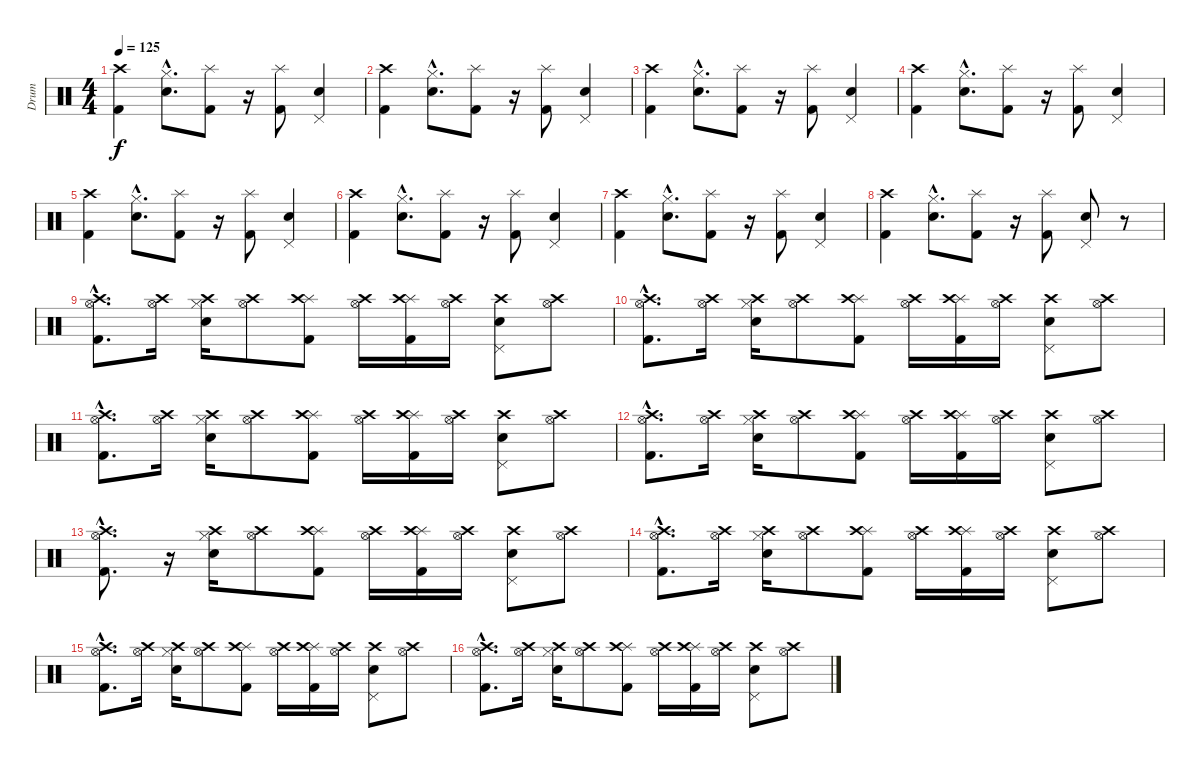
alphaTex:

\track ("Drum" "Drum") {instrument percussion}
\staff {score}
\articulation defaults
\ts (4 4)
\tempo 125
\clef neutral
\ks c
("Kick (hit) 2" "Crash high (hit)").4{dy f} ("Snare (hit) 2"{hac} "Hi-Hat (closed)"{hac}).8{d} ("Kick (hit) 2" "Splash (hit)").8 r.16 ("Kick (hit) 2" "Splash (hit)").8 ("Snare (hit) 2" "Pedal Hi-Hat (hit)").4 |
("Kick (hit) 2" "Crash high (hit)").4 ("Snare (hit) 2"{hac} "Hi-Hat (closed)"{hac}).8{d} ("Kick (hit) 2" "Splash (hit)").8 r.16 ("Kick (hit) 2" "Splash (hit)").8 ("Snare (hit) 2" "Pedal Hi-Hat (hit)").4 |
("Kick (hit) 2" "Crash high (hit)").4 ("Snare (hit) 2"{hac} "Hi-Hat (closed)"{hac}).8{d} ("Kick (hit) 2" "Splash (hit)").8 r.16 ("Kick (hit) 2" "Splash (hit)").8 ("Snare (hit) 2" "Pedal Hi-Hat (hit)").4 |
("Kick (hit) 2" "Crash high (hit)").4 ("Snare (hit) 2"{hac} "Hi-Hat (closed)"{hac}).8{d} ("Kick (hit) 2" "Splash (hit)").8 r.16 ("Kick (hit) 2" "Splash (hit)").8 ("Snare (hit) 2" "Pedal Hi-Hat (hit)").4 |
("Kick (hit) 2" "Crash high (hit)").4 ("Snare (hit) 2"{hac} "Hi-Hat (closed)"{hac}).8{d} ("Kick (hit) 2" "Splash (hit)").8 r.16 ("Kick (hit) 2" "Splash (hit)").8 ("Snare (hit) 2" "Pedal Hi-Hat (hit)").4 |
("Kick (hit) 2" "Crash high (hit)").4 ("Snare (hit) 2"{hac} "Hi-Hat (closed)"{hac}).8{d} ("Kick (hit) 2" "Splash (hit)").8 r.16 ("Kick (hit) 2" "Splash (hit)").8 ("Snare (hit) 2" "Pedal Hi-Hat (hit)").4 |
("Kick (hit) 2" "Crash high (hit)").4 ("Snare (hit) 2"{hac} "Hi-Hat (closed)"{hac}).8{d} ("Kick (hit) 2" "Splash (hit)").8 r.16 ("Kick (hit) 2" "Splash (hit)").8 ("Snare (hit) 2" "Pedal Hi-Hat (hit)").4 |
("Kick (hit) 2" "Crash high (hit)").4 ("Snare (hit) 2"{hac} "Hi-Hat (closed)"{hac}).8{d} ("Kick (hit) 2" "Splash (hit)").8 r.16 ("Kick (hit) 2" "Splash (hit)").8 ("Snare (hit) 2" "Pedal Hi-Hat (hit)").8 r.8 |
("Kick (hit) 2"{hac} "Crash high (hit)"{hac} "Hi-Hat (open)"{hac}).8{d} ("Hi-Hat (open)" "Crash high (hit)").16 ("Snare (hit) 2" "Hi-Hat (closed)" "Crash high (hit)").16 ("Hi-Hat (open)" "Crash high (hit)").8 ("Kick (hit) 2" "Splash (hit)" "Crash high (hit)").8 ("Hi-Hat (open)" "Crash high (hit)").16 ("Kick (hit) 2" "Splash (hit)" "Crash high (hit)").16 ("Hi-Hat (open)" "Crash high (hit)").16 ("Snare (hit) 2" "Pedal Hi-Hat (hit)" "Crash high (hit)").8 ("Hi-Hat (open)" "Crash high (hit)").8 |
("Kick (hit) 2"{hac} "Crash high (hit)"{hac} "Hi-Hat (open)"{hac}).8{d} ("Hi-Hat (open)" "Crash high (hit)").16 ("Snare (hit) 2" "Hi-Hat (closed)" "Crash high (hit)").16 ("Hi-Hat (open)" "Crash high (hit)").8 ("Kick (hit) 2" "Splash (hit)" "Crash high (hit)").8 ("Hi-Hat (open)" "Crash high (hit)").16 ("Kick (hit) 2" "Splash (hit)" "Crash high (hit)").16 ("Hi-Hat (open)" "Crash high (hit)").16 ("Snare (hit) 2" "Pedal Hi-Hat (hit)" "Crash high (hit)").8 ("Hi-Hat (open)" "Crash high (hit)").8 |
("Kick (hit) 2"{hac} "Crash high (hit)"{hac} "Hi-Hat (open)"{hac}).8{d} ("Hi-Hat (open)" "Crash high (hit)").16 ("Snare (hit) 2" "Hi-Hat (closed)" "Crash high (hit)").16 ("Hi-Hat (open)" "Crash high (hit)").8 ("Kick (hit) 2" "Splash (hit)" "Crash high (hit)").8 ("Hi-Hat (open)" "Crash high (hit)").16 ("Kick (hit) 2" "Splash (hit)" "Crash high (hit)").16 ("Hi-Hat (open)" "Crash high (hit)").16 ("Snare (hit) 2" "Pedal Hi-Hat (hit)" "Crash high (hit)").8 ("Hi-Hat (open)" "Crash high (hit)").8 |
("Kick (hit) 2"{hac} "Crash high (hit)"{hac} "Hi-Hat (open)"{hac}).8{d} ("Hi-Hat (open)" "Crash high (hit)").16 ("Snare (hit) 2" "Hi-Hat (closed)" "Crash high (hit)").16 ("Hi-Hat (open)" "Crash high (hit)").8 ("Kick (hit) 2" "Splash (hit)" "Crash high (hit)").8 ("Hi-Hat (open)" "Crash high (hit)").16 ("Kick (hit) 2" "Splash (hit)" "Crash high (hit)").16 ("Hi-Hat (open)" "Crash high (hit)").16 ("Snare (hit) 2" "Pedal Hi-Hat (hit)" "Crash high (hit)").8 ("Hi-Hat (open)" "Crash high (hit)").8 |
("Kick (hit) 2"{hac} "Crash high (hit)"{hac} "Hi-Hat (open)"{hac}).8{d} r.16 ("Snare (hit) 2" "Hi-Hat (closed)" "Crash high (hit)").16 ("Hi-Hat (open)" "Crash high (hit)").8 ("Kick (hit) 2" "Splash (hit)" "Crash high (hit)").8 ("Hi-Hat (open)" "Crash high (hit)").16 ("Kick (hit) 2" "Splash (hit)" "Crash high (hit)").16 ("Hi-Hat (open)" "Crash high (hit)").16 ("Snare (hit) 2" "Pedal Hi-Hat (hit)" "Crash high (hit)").8 ("Hi-Hat (open)" "Crash high (hit)").8 |
("Kick (hit) 2"{hac} "Crash high (hit)"{hac} "Hi-Hat (open)"{hac}).8{d} ("Hi-Hat (open)" "Crash high (hit)").16 ("Snare (hit) 2" "Hi-Hat (closed)" "Crash high (hit)").16 ("Hi-Hat (open)" "Crash high (hit)").8 ("Kick (hit) 2" "Splash (hit)" "Crash high (hit)").8 ("Hi-Hat (open)" "Crash high (hit)").16 ("Kick (hit) 2" "Splash (hit)" "Crash high (hit)").16 ("Hi-Hat (open)" "Crash high (hit)").16 ("Snare (hit) 2" "Pedal Hi-Hat (hit)" "Crash high (hit)").8 ("Hi-Hat (open)" "Crash high (hit)").8 |
("Kick (hit) 2"{hac} "Crash high (hit)"{hac} "Hi-Hat (open)"{hac}).8{d} ("Hi-Hat (open)" "Crash high (hit)").16 ("Snare (hit) 2" "Hi-Hat (closed)" "Crash high (hit)").16 ("Hi-Hat (open)" "Crash high (hit)").8 ("Kick (hit) 2" "Splash (hit)" "Crash high (hit)").8 ("Hi-Hat (open)" "Crash high (hit)").16 ("Kick (hit) 2" "Splash (hit)" "Crash high (hit)").16 ("Hi-Hat (open)" "Crash high (hit)").16 ("Snare (hit) 2" "Pedal Hi-Hat (hit)" "Crash high (hit)").8 ("Hi-Hat (open)" "Crash high (hit)").8 |
("Kick (hit) 2"{hac} "Crash high (hit)"{hac} "Hi-Hat (open)"{hac}).8{d} ("Hi-Hat (open)" "Crash high (hit)").16 ("Snare (hit) 2" "Hi-Hat (closed)" "Crash high (hit)").16 ("Hi-Hat (open)" "Crash high (hit)").8 ("Kick (hit) 2" "Splash (hit)" "Crash high (hit)").8 ("Hi-Hat (open)" "Crash high (hit)").16 ("Kick (hit) 2" "Splash (hit)" "Crash high (hit)").16 ("Hi-Hat (open)" "Crash high (hit)").16 ("Snare (hit) 2" "Pedal Hi-Hat (hit)" "Crash high (hit)").8 ("Hi-Hat (open)" "Crash high (hit)").8
